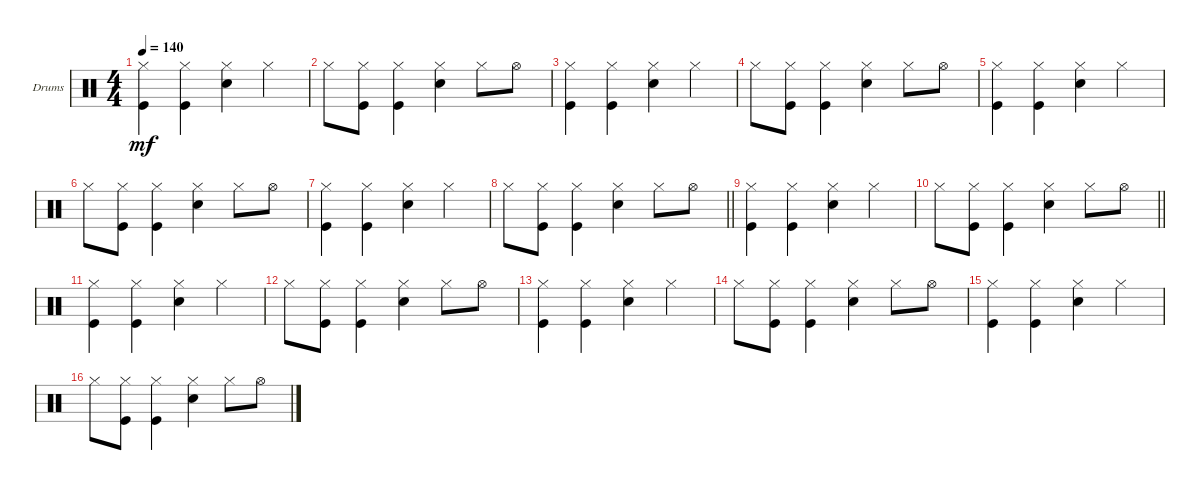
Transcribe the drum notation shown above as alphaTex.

\defaultSystemsLayout 4
\bracketExtendMode groupsimilarinstruments
\firstSystemTrackNameOrientation horizontal
\otherSystemsTrackNameOrientation horizontal
\track ("Drumkit" "Drums") {instrument percussion}
\staff {score}
\articulation defaults
\ts (4 4)
\tempo 140
\clef neutral
\ks c
("Hi-Hat (closed)" "Kick (hit)").4{dy mf} ("Hi-Hat (closed)" "Kick (hit)").4 ("Hi-Hat (closed)" "Snare (hit) 2").4 "Hi-Hat (closed)".4 |
"Hi-Hat (closed)".8 ("Hi-Hat (closed)" "Kick (hit)").8 ("Hi-Hat (closed)" "Kick (hit)").4 ("Snare (hit) 2" "Hi-Hat (closed)").4 "Hi-Hat (closed)".8 "Hi-Hat (open)".8 |
("Hi-Hat (closed)" "Kick (hit)").4 ("Hi-Hat (closed)" "Kick (hit)").4 ("Hi-Hat (closed)" "Snare (hit) 2").4 "Hi-Hat (closed)".4 |
"Hi-Hat (closed)".8 ("Hi-Hat (closed)" "Kick (hit)").8 ("Hi-Hat (closed)" "Kick (hit)").4 ("Snare (hit) 2" "Hi-Hat (closed)").4 "Hi-Hat (closed)".8 "Hi-Hat (open)".8 |
("Hi-Hat (closed)" "Kick (hit)").4 ("Hi-Hat (closed)" "Kick (hit)").4 ("Hi-Hat (closed)" "Snare (hit) 2").4 "Hi-Hat (closed)".4 |
"Hi-Hat (closed)".8 ("Hi-Hat (closed)" "Kick (hit)").8 ("Hi-Hat (closed)" "Kick (hit)").4 ("Snare (hit) 2" "Hi-Hat (closed)").4 "Hi-Hat (closed)".8 "Hi-Hat (open)".8 |
("Hi-Hat (closed)" "Kick (hit)").4 ("Hi-Hat (closed)" "Kick (hit)").4 ("Hi-Hat (closed)" "Snare (hit) 2").4 "Hi-Hat (closed)".4 |
\barLineRight lightlight "Hi-Hat (closed)".8
("Hi-Hat (closed)" "Kick (hit)").8 ("Hi-Hat (closed)" "Kick (hit)").4 ("Snare (hit) 2" "Hi-Hat (closed)").4 "Hi-Hat (closed)".8 "Hi-Hat (open)".8 |
("Hi-Hat (closed)" "Kick (hit)").4 ("Hi-Hat (closed)" "Kick (hit)").4 ("Hi-Hat (closed)" "Snare (hit) 2").4 "Hi-Hat (closed)".4 |
\barLineRight lightlight "Hi-Hat (closed)".8
("Hi-Hat (closed)" "Kick (hit)").8 ("Hi-Hat (closed)" "Kick (hit)").4 ("Snare (hit) 2" "Hi-Hat (closed)").4 "Hi-Hat (closed)".8 "Hi-Hat (open)".8 |
("Hi-Hat (closed)" "Kick (hit)").4 ("Hi-Hat (closed)" "Kick (hit)").4 ("Hi-Hat (closed)" "Snare (hit) 2").4 "Hi-Hat (closed)".4 |
"Hi-Hat (closed)".8 ("Hi-Hat (closed)" "Kick (hit)").8 ("Hi-Hat (closed)" "Kick (hit)").4 ("Snare (hit) 2" "Hi-Hat (closed)").4 "Hi-Hat (closed)".8 "Hi-Hat (open)".8 |
("Hi-Hat (closed)" "Kick (hit)").4 ("Hi-Hat (closed)" "Kick (hit)").4 ("Hi-Hat (closed)" "Snare (hit) 2").4 "Hi-Hat (closed)".4 |
"Hi-Hat (closed)".8 ("Hi-Hat (closed)" "Kick (hit)").8 ("Hi-Hat (closed)" "Kick (hit)").4 ("Snare (hit) 2" "Hi-Hat (closed)").4 "Hi-Hat (closed)".8 "Hi-Hat (open)".8 |
("Hi-Hat (closed)" "Kick (hit)").4 ("Hi-Hat (closed)" "Kick (hit)").4 ("Hi-Hat (closed)" "Snare (hit) 2").4 "Hi-Hat (closed)".4 |
"Hi-Hat (closed)".8 ("Hi-Hat (closed)" "Kick (hit)").8 ("Hi-Hat (closed)" "Kick (hit)").4 ("Snare (hit) 2" "Hi-Hat (closed)").4 "Hi-Hat (closed)".8 "Hi-Hat (open)".8
